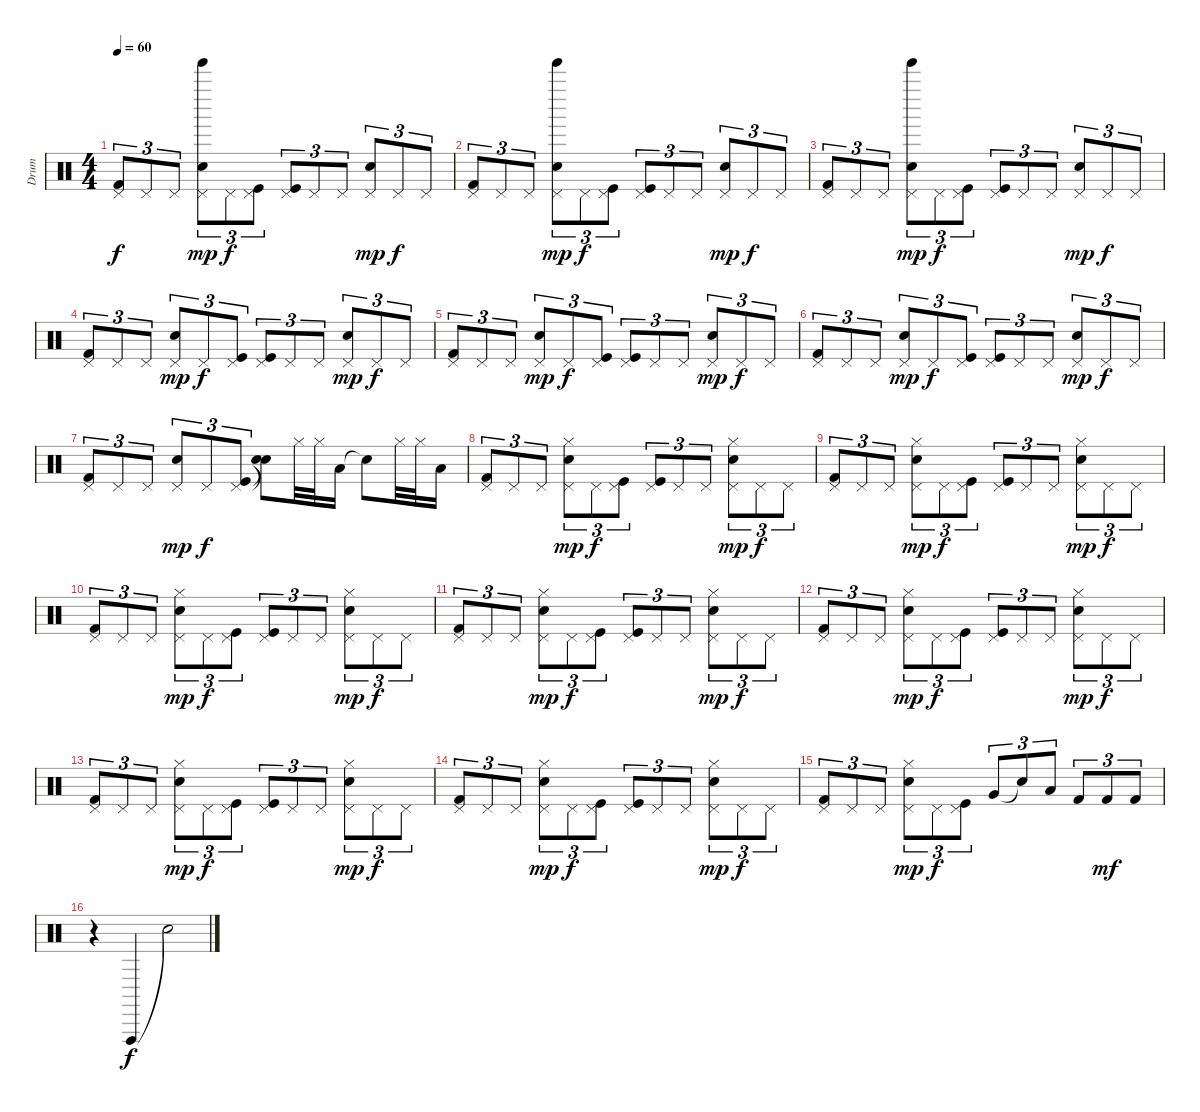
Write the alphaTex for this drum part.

\track ("Drum" "Drum") {instrument percussion}
\staff {score}
\articulation defaults
\ts (4 4)
\tempo 60
\clef neutral
\ks c
("Kick (hit) 2" "Pedal Hi-Hat (hit)").8{tu (3 2) dy f} "Pedal Hi-Hat (hit)".8{tu (3 2)} "Pedal Hi-Hat (hit)".8{tu (3 2)} ("Snare (hit) 2" "Tinkle Bell (hit)" "Pedal Hi-Hat (hit)").8{tu (3 2) dy mp} "Pedal Hi-Hat (hit)".8{tu (3 2) dy f} ("Kick (hit)" "Pedal Hi-Hat (hit)").8{tu (3 2)} ("Kick (hit)" "Pedal Hi-Hat (hit)").8{tu (3 2)} "Pedal Hi-Hat (hit)".8{tu (3 2)} "Pedal Hi-Hat (hit)".8{tu (3 2)} ("Snare (hit) 2" "Pedal Hi-Hat (hit)").8{tu (3 2) dy mp} "Pedal Hi-Hat (hit)".8{tu (3 2) dy f} "Pedal Hi-Hat (hit)".8{tu (3 2)} |
("Kick (hit) 2" "Pedal Hi-Hat (hit)").8{tu (3 2)} "Pedal Hi-Hat (hit)".8{tu (3 2)} "Pedal Hi-Hat (hit)".8{tu (3 2)} ("Snare (hit) 2" "Tinkle Bell (hit)" "Pedal Hi-Hat (hit)").8{tu (3 2) dy mp} "Pedal Hi-Hat (hit)".8{tu (3 2) dy f} ("Kick (hit)" "Pedal Hi-Hat (hit)").8{tu (3 2)} ("Kick (hit)" "Pedal Hi-Hat (hit)").8{tu (3 2)} "Pedal Hi-Hat (hit)".8{tu (3 2)} "Pedal Hi-Hat (hit)".8{tu (3 2)} ("Snare (hit) 2" "Pedal Hi-Hat (hit)").8{tu (3 2) dy mp} "Pedal Hi-Hat (hit)".8{tu (3 2) dy f} "Pedal Hi-Hat (hit)".8{tu (3 2)} |
("Kick (hit) 2" "Pedal Hi-Hat (hit)").8{tu (3 2)} "Pedal Hi-Hat (hit)".8{tu (3 2)} "Pedal Hi-Hat (hit)".8{tu (3 2)} ("Snare (hit) 2" "Tinkle Bell (hit)" "Pedal Hi-Hat (hit)").8{tu (3 2) dy mp} "Pedal Hi-Hat (hit)".8{tu (3 2) dy f} ("Kick (hit)" "Pedal Hi-Hat (hit)").8{tu (3 2)} ("Kick (hit)" "Pedal Hi-Hat (hit)").8{tu (3 2)} "Pedal Hi-Hat (hit)".8{tu (3 2)} "Pedal Hi-Hat (hit)".8{tu (3 2)} ("Snare (hit) 2" "Pedal Hi-Hat (hit)").8{tu (3 2) dy mp} "Pedal Hi-Hat (hit)".8{tu (3 2) dy f} "Pedal Hi-Hat (hit)".8{tu (3 2)} |
("Kick (hit) 2" "Pedal Hi-Hat (hit)").8{tu (3 2)} "Pedal Hi-Hat (hit)".8{tu (3 2)} "Pedal Hi-Hat (hit)".8{tu (3 2)} ("Snare (hit) 2" "Pedal Hi-Hat (hit)").8{tu (3 2) dy mp} "Pedal Hi-Hat (hit)".8{tu (3 2) dy f} ("Kick (hit)" "Pedal Hi-Hat (hit)").8{tu (3 2)} ("Kick (hit)" "Pedal Hi-Hat (hit)").8{tu (3 2)} "Pedal Hi-Hat (hit)".8{tu (3 2)} "Pedal Hi-Hat (hit)".8{tu (3 2)} ("Snare (hit) 2" "Pedal Hi-Hat (hit)").8{tu (3 2) dy mp} "Pedal Hi-Hat (hit)".8{tu (3 2) dy f} "Pedal Hi-Hat (hit)".8{tu (3 2)} |
("Kick (hit) 2" "Pedal Hi-Hat (hit)").8{tu (3 2)} "Pedal Hi-Hat (hit)".8{tu (3 2)} "Pedal Hi-Hat (hit)".8{tu (3 2)} ("Snare (hit) 2" "Pedal Hi-Hat (hit)").8{tu (3 2) dy mp} "Pedal Hi-Hat (hit)".8{tu (3 2) dy f} ("Kick (hit)" "Pedal Hi-Hat (hit)").8{tu (3 2)} ("Kick (hit)" "Pedal Hi-Hat (hit)").8{tu (3 2)} "Pedal Hi-Hat (hit)".8{tu (3 2)} "Pedal Hi-Hat (hit)".8{tu (3 2)} ("Snare (hit) 2" "Pedal Hi-Hat (hit)").8{tu (3 2) dy mp} "Pedal Hi-Hat (hit)".8{tu (3 2) dy f} "Pedal Hi-Hat (hit)".8{tu (3 2)} |
("Kick (hit) 2" "Pedal Hi-Hat (hit)").8{tu (3 2)} "Pedal Hi-Hat (hit)".8{tu (3 2)} "Pedal Hi-Hat (hit)".8{tu (3 2)} ("Snare (hit) 2" "Pedal Hi-Hat (hit)").8{tu (3 2) dy mp} "Pedal Hi-Hat (hit)".8{tu (3 2) dy f} ("Kick (hit)" "Pedal Hi-Hat (hit)").8{tu (3 2)} ("Kick (hit)" "Pedal Hi-Hat (hit)").8{tu (3 2)} "Pedal Hi-Hat (hit)".8{tu (3 2)} "Pedal Hi-Hat (hit)".8{tu (3 2)} ("Snare (hit) 2" "Pedal Hi-Hat (hit)").8{tu (3 2) dy mp} "Pedal Hi-Hat (hit)".8{tu (3 2) dy f} "Pedal Hi-Hat (hit)".8{tu (3 2)} |
("Kick (hit) 2" "Pedal Hi-Hat (hit)").8{tu (3 2)} "Pedal Hi-Hat (hit)".8{tu (3 2)} "Pedal Hi-Hat (hit)".8{tu (3 2)} ("Snare (hit) 2" "Pedal Hi-Hat (hit)").8{tu (3 2) dy mp} "Pedal Hi-Hat (hit)".8{tu (3 2) dy f} ("Kick (hit)" "Pedal Hi-Hat (hit)").8{tu (3 2)} ("Snare (hit)"{t} "Snare (hit)"{t}).8 "Hi-Hat (closed)".32 "Hi-Hat (closed)".32 "Low Floor Tom (hit)".16 "Snare (hit)"{t}.8 "Hi-Hat (closed)".32 "Hi-Hat (closed)".32 "Low Floor Tom (hit)".16 |
("Kick (hit) 2" "Pedal Hi-Hat (hit)").8{tu (3 2)} "Pedal Hi-Hat (hit)".8{tu (3 2)} "Pedal Hi-Hat (hit)".8{tu (3 2)} ("Snare (hit) 2" "Hi-Hat (closed)" "Pedal Hi-Hat (hit)").8{tu (3 2) dy mp} "Pedal Hi-Hat (hit)".8{tu (3 2) dy f} ("Kick (hit)" "Pedal Hi-Hat (hit)").8{tu (3 2)} ("Kick (hit)" "Pedal Hi-Hat (hit)").8{tu (3 2)} "Pedal Hi-Hat (hit)".8{tu (3 2)} "Pedal Hi-Hat (hit)".8{tu (3 2)} ("Snare (hit) 2" "Hi-Hat (closed)" "Pedal Hi-Hat (hit)").8{tu (3 2) dy mp} "Pedal Hi-Hat (hit)".8{tu (3 2) dy f} "Pedal Hi-Hat (hit)".8{tu (3 2)} |
("Kick (hit) 2" "Pedal Hi-Hat (hit)").8{tu (3 2)} "Pedal Hi-Hat (hit)".8{tu (3 2)} "Pedal Hi-Hat (hit)".8{tu (3 2)} ("Snare (hit) 2" "Hi-Hat (closed)" "Pedal Hi-Hat (hit)").8{tu (3 2) dy mp} "Pedal Hi-Hat (hit)".8{tu (3 2) dy f} ("Kick (hit)" "Pedal Hi-Hat (hit)").8{tu (3 2)} ("Kick (hit)" "Pedal Hi-Hat (hit)").8{tu (3 2)} "Pedal Hi-Hat (hit)".8{tu (3 2)} "Pedal Hi-Hat (hit)".8{tu (3 2)} ("Snare (hit) 2" "Hi-Hat (closed)" "Pedal Hi-Hat (hit)").8{tu (3 2) dy mp} "Pedal Hi-Hat (hit)".8{tu (3 2) dy f} "Pedal Hi-Hat (hit)".8{tu (3 2)} |
("Kick (hit) 2" "Pedal Hi-Hat (hit)").8{tu (3 2)} "Pedal Hi-Hat (hit)".8{tu (3 2)} "Pedal Hi-Hat (hit)".8{tu (3 2)} ("Snare (hit) 2" "Hi-Hat (closed)" "Pedal Hi-Hat (hit)").8{tu (3 2) dy mp} "Pedal Hi-Hat (hit)".8{tu (3 2) dy f} ("Kick (hit)" "Pedal Hi-Hat (hit)").8{tu (3 2)} ("Kick (hit)" "Pedal Hi-Hat (hit)").8{tu (3 2)} "Pedal Hi-Hat (hit)".8{tu (3 2)} "Pedal Hi-Hat (hit)".8{tu (3 2)} ("Snare (hit) 2" "Hi-Hat (closed)" "Pedal Hi-Hat (hit)").8{tu (3 2) dy mp} "Pedal Hi-Hat (hit)".8{tu (3 2) dy f} "Pedal Hi-Hat (hit)".8{tu (3 2)} |
("Kick (hit) 2" "Pedal Hi-Hat (hit)").8{tu (3 2)} "Pedal Hi-Hat (hit)".8{tu (3 2)} "Pedal Hi-Hat (hit)".8{tu (3 2)} ("Snare (hit) 2" "Hi-Hat (closed)" "Pedal Hi-Hat (hit)").8{tu (3 2) dy mp} "Pedal Hi-Hat (hit)".8{tu (3 2) dy f} ("Kick (hit)" "Pedal Hi-Hat (hit)").8{tu (3 2)} ("Kick (hit)" "Pedal Hi-Hat (hit)").8{tu (3 2)} "Pedal Hi-Hat (hit)".8{tu (3 2)} "Pedal Hi-Hat (hit)".8{tu (3 2)} ("Snare (hit) 2" "Hi-Hat (closed)" "Pedal Hi-Hat (hit)").8{tu (3 2) dy mp} "Pedal Hi-Hat (hit)".8{tu (3 2) dy f} "Pedal Hi-Hat (hit)".8{tu (3 2)} |
("Kick (hit) 2" "Pedal Hi-Hat (hit)").8{tu (3 2)} "Pedal Hi-Hat (hit)".8{tu (3 2)} "Pedal Hi-Hat (hit)".8{tu (3 2)} ("Snare (hit) 2" "Hi-Hat (closed)" "Pedal Hi-Hat (hit)").8{tu (3 2) dy mp} "Pedal Hi-Hat (hit)".8{tu (3 2) dy f} ("Kick (hit)" "Pedal Hi-Hat (hit)").8{tu (3 2)} ("Kick (hit)" "Pedal Hi-Hat (hit)").8{tu (3 2)} "Pedal Hi-Hat (hit)".8{tu (3 2)} "Pedal Hi-Hat (hit)".8{tu (3 2)} ("Snare (hit) 2" "Hi-Hat (closed)" "Pedal Hi-Hat (hit)").8{tu (3 2) dy mp} "Pedal Hi-Hat (hit)".8{tu (3 2) dy f} "Pedal Hi-Hat (hit)".8{tu (3 2)} |
("Kick (hit) 2" "Pedal Hi-Hat (hit)").8{tu (3 2)} "Pedal Hi-Hat (hit)".8{tu (3 2)} "Pedal Hi-Hat (hit)".8{tu (3 2)} ("Snare (hit) 2" "Hi-Hat (closed)" "Pedal Hi-Hat (hit)").8{tu (3 2) dy mp} "Pedal Hi-Hat (hit)".8{tu (3 2) dy f} ("Kick (hit)" "Pedal Hi-Hat (hit)").8{tu (3 2)} ("Kick (hit)" "Pedal Hi-Hat (hit)").8{tu (3 2)} "Pedal Hi-Hat (hit)".8{tu (3 2)} "Pedal Hi-Hat (hit)".8{tu (3 2)} ("Snare (hit) 2" "Hi-Hat (closed)" "Pedal Hi-Hat (hit)").8{tu (3 2) dy mp} "Pedal Hi-Hat (hit)".8{tu (3 2) dy f} "Pedal Hi-Hat (hit)".8{tu (3 2)} |
("Kick (hit) 2" "Pedal Hi-Hat (hit)").8{tu (3 2)} "Pedal Hi-Hat (hit)".8{tu (3 2)} "Pedal Hi-Hat (hit)".8{tu (3 2)} ("Snare (hit) 2" "Hi-Hat (closed)" "Pedal Hi-Hat (hit)").8{tu (3 2) dy mp} "Pedal Hi-Hat (hit)".8{tu (3 2) dy f} ("Kick (hit)" "Pedal Hi-Hat (hit)").8{tu (3 2)} ("Kick (hit)" "Pedal Hi-Hat (hit)").8{tu (3 2)} "Pedal Hi-Hat (hit)".8{tu (3 2)} "Pedal Hi-Hat (hit)".8{tu (3 2)} ("Snare (hit) 2" "Hi-Hat (closed)" "Pedal Hi-Hat (hit)").8{tu (3 2) dy mp} "Pedal Hi-Hat (hit)".8{tu (3 2) dy f} "Pedal Hi-Hat (hit)".8{tu (3 2)} |
("Kick (hit) 2" "Pedal Hi-Hat (hit)").8{tu (3 2)} "Pedal Hi-Hat (hit)".8{tu (3 2)} "Pedal Hi-Hat (hit)".8{tu (3 2)} ("Snare (hit) 2" "Hi-Hat (closed)" "Pedal Hi-Hat (hit)").8{tu (3 2) dy mp} "Pedal Hi-Hat (hit)".8{tu (3 2) dy f} ("Kick (hit)" "Pedal Hi-Hat (hit)").8{tu (3 2)} "Very Low Tom (hit)".8{tu (3 2)} "Snare (hit)"{t}.8{tu (3 2)} "Low Floor Tom (hit)".8{tu (3 2)} "Kick (hit) 2".8{tu (3 2)} "Kick (hit) 2".8{tu (3 2) dy mf} "Kick (hit) 2".8{tu (3 2)} |
r.4 "Vibraslap (hit)".4{dy f} "Snare (hit)"{t}.2
